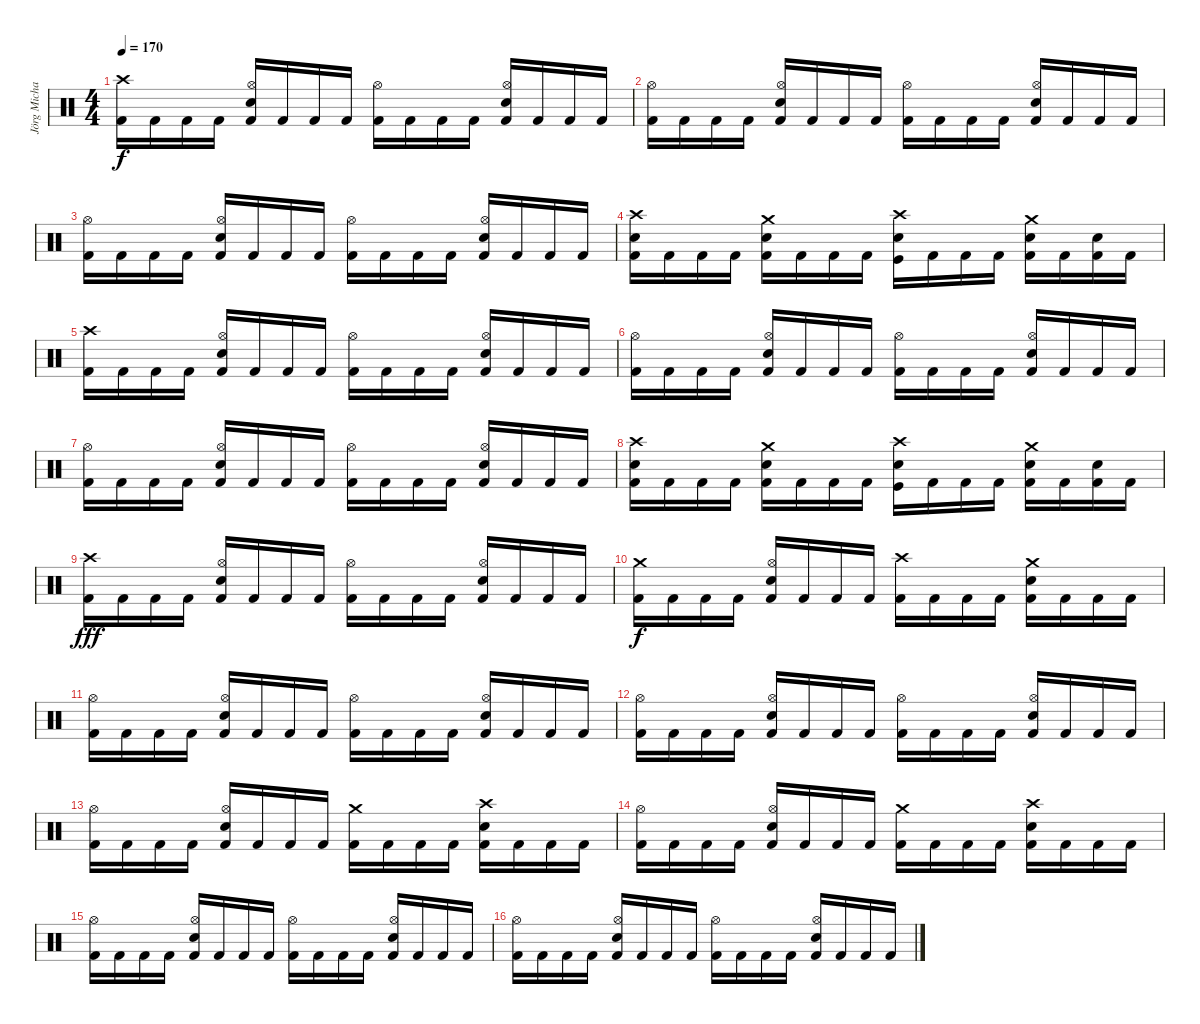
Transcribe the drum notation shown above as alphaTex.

\track ("Jörg Michael" "Jörg Micha") {instrument percussion}
\staff {score}
\articulation defaults
\ts (4 4)
\tempo 170
\clef neutral
\ks c
("Crash high (hit)" "Kick (hit) 2").16{dy f} "Kick (hit) 2".16 "Kick (hit) 2".16 "Kick (hit) 2".16 ("Hi-Hat (open)" "Snare (hit) 2" "Kick (hit) 2").16 "Kick (hit) 2".16 "Kick (hit) 2".16 "Kick (hit) 2".16 ("Hi-Hat (open)" "Kick (hit) 2").16 "Kick (hit) 2".16 "Kick (hit) 2".16 "Kick (hit) 2".16 ("Hi-Hat (open)" "Snare (hit) 2" "Kick (hit) 2").16 "Kick (hit) 2".16 "Kick (hit) 2".16 "Kick (hit) 2".16 |
("Hi-Hat (open)" "Kick (hit) 2").16 "Kick (hit) 2".16 "Kick (hit) 2".16 "Kick (hit) 2".16 ("Hi-Hat (open)" "Snare (hit) 2" "Kick (hit) 2").16 "Kick (hit) 2".16 "Kick (hit) 2".16 "Kick (hit) 2".16 ("Hi-Hat (open)" "Kick (hit) 2").16 "Kick (hit) 2".16 "Kick (hit) 2".16 "Kick (hit) 2".16 ("Hi-Hat (open)" "Snare (hit) 2" "Kick (hit) 2").16 "Kick (hit) 2".16 "Kick (hit) 2".16 "Kick (hit) 2".16 |
("Hi-Hat (open)" "Kick (hit) 2").16 "Kick (hit) 2".16 "Kick (hit) 2".16 "Kick (hit) 2".16 ("Hi-Hat (open)" "Snare (hit) 2" "Kick (hit) 2").16 "Kick (hit) 2".16 "Kick (hit) 2".16 "Kick (hit) 2".16 ("Hi-Hat (open)" "Kick (hit) 2").16 "Kick (hit) 2".16 "Kick (hit) 2".16 "Kick (hit) 2".16 ("Hi-Hat (open)" "Snare (hit) 2" "Kick (hit) 2").16 "Kick (hit) 2".16 "Kick (hit) 2".16 "Kick (hit) 2".16 |
("Crash high (hit)" "Snare (hit) 2" "Kick (hit) 2").16 "Kick (hit) 2".16 "Kick (hit) 2".16 "Kick (hit) 2".16 ("Crash medium (hit)" "Snare (hit) 2" "Kick (hit) 2").16 "Kick (hit) 2".16 "Kick (hit) 2".16 "Kick (hit) 2".16 ("Crash high (hit)" "Snare (hit) 2" "Kick (hit)").16 "Kick (hit) 2".16 "Kick (hit) 2".16 "Kick (hit) 2".16 ("Crash medium (hit)" "Snare (hit) 2" "Kick (hit) 2").16 "Kick (hit) 2".16 ("Snare (hit) 2" "Kick (hit) 2").16 "Kick (hit) 2".16 |
("Crash high (hit)" "Kick (hit) 2").16 "Kick (hit) 2".16 "Kick (hit) 2".16 "Kick (hit) 2".16 ("Hi-Hat (open)" "Snare (hit) 2" "Kick (hit) 2").16 "Kick (hit) 2".16 "Kick (hit) 2".16 "Kick (hit) 2".16 ("Hi-Hat (open)" "Kick (hit) 2").16 "Kick (hit) 2".16 "Kick (hit) 2".16 "Kick (hit) 2".16 ("Hi-Hat (open)" "Snare (hit) 2" "Kick (hit) 2").16 "Kick (hit) 2".16 "Kick (hit) 2".16 "Kick (hit) 2".16 |
("Hi-Hat (open)" "Kick (hit) 2").16 "Kick (hit) 2".16 "Kick (hit) 2".16 "Kick (hit) 2".16 ("Hi-Hat (open)" "Snare (hit) 2" "Kick (hit) 2").16 "Kick (hit) 2".16 "Kick (hit) 2".16 "Kick (hit) 2".16 ("Hi-Hat (open)" "Kick (hit) 2").16 "Kick (hit) 2".16 "Kick (hit) 2".16 "Kick (hit) 2".16 ("Hi-Hat (open)" "Snare (hit) 2" "Kick (hit) 2").16 "Kick (hit) 2".16 "Kick (hit) 2".16 "Kick (hit) 2".16 |
("Hi-Hat (open)" "Kick (hit) 2").16 "Kick (hit) 2".16 "Kick (hit) 2".16 "Kick (hit) 2".16 ("Hi-Hat (open)" "Snare (hit) 2" "Kick (hit) 2").16 "Kick (hit) 2".16 "Kick (hit) 2".16 "Kick (hit) 2".16 ("Hi-Hat (open)" "Kick (hit) 2").16 "Kick (hit) 2".16 "Kick (hit) 2".16 "Kick (hit) 2".16 ("Hi-Hat (open)" "Snare (hit) 2" "Kick (hit) 2").16 "Kick (hit) 2".16 "Kick (hit) 2".16 "Kick (hit) 2".16 |
("Crash high (hit)" "Snare (hit) 2" "Kick (hit) 2").16 "Kick (hit) 2".16 "Kick (hit) 2".16 "Kick (hit) 2".16 ("Crash medium (hit)" "Snare (hit) 2" "Kick (hit) 2").16 "Kick (hit) 2".16 "Kick (hit) 2".16 "Kick (hit) 2".16 ("Crash high (hit)" "Snare (hit) 2" "Kick (hit)").16 "Kick (hit) 2".16 "Kick (hit) 2".16 "Kick (hit) 2".16 ("Crash medium (hit)" "Snare (hit) 2" "Kick (hit) 2").16 "Kick (hit) 2".16 ("Snare (hit) 2" "Kick (hit) 2").16 "Kick (hit) 2".16 |
("Crash high (hit)" "Kick (hit) 2").16{dy fff} "Kick (hit) 2".16 "Kick (hit) 2".16 "Kick (hit) 2".16 ("Hi-Hat (open)" "Snare (hit) 2" "Kick (hit) 2").16 "Kick (hit) 2".16 "Kick (hit) 2".16 "Kick (hit) 2".16 ("Hi-Hat (open)" "Kick (hit) 2").16 "Kick (hit) 2".16 "Kick (hit) 2".16 "Kick (hit) 2".16 ("Hi-Hat (open)" "Snare (hit) 2" "Kick (hit) 2").16 "Kick (hit) 2".16 "Kick (hit) 2".16 "Kick (hit) 2".16 |
("Crash medium (hit)" "Kick (hit) 2").16{dy f} "Kick (hit) 2".16 "Kick (hit) 2".16 "Kick (hit) 2".16 ("Hi-Hat (open)" "Snare (hit) 2" "Kick (hit) 2").16 "Kick (hit) 2".16 "Kick (hit) 2".16 "Kick (hit) 2".16 ("Crash high (hit)" "Kick (hit) 2").16 "Kick (hit) 2".16 "Kick (hit) 2".16 "Kick (hit) 2".16 ("Crash medium (hit)" "Snare (hit) 2" "Kick (hit) 2").16 "Kick (hit) 2".16 "Kick (hit) 2".16 "Kick (hit) 2".16 |
("Hi-Hat (open)" "Kick (hit) 2").16 "Kick (hit) 2".16 "Kick (hit) 2".16 "Kick (hit) 2".16 ("Hi-Hat (open)" "Snare (hit) 2" "Kick (hit) 2").16 "Kick (hit) 2".16 "Kick (hit) 2".16 "Kick (hit) 2".16 ("Hi-Hat (open)" "Kick (hit) 2").16 "Kick (hit) 2".16 "Kick (hit) 2".16 "Kick (hit) 2".16 ("Hi-Hat (open)" "Snare (hit) 2" "Kick (hit) 2").16 "Kick (hit) 2".16 "Kick (hit) 2".16 "Kick (hit) 2".16 |
("Hi-Hat (open)" "Kick (hit) 2").16 "Kick (hit) 2".16 "Kick (hit) 2".16 "Kick (hit) 2".16 ("Hi-Hat (open)" "Snare (hit) 2" "Kick (hit) 2").16 "Kick (hit) 2".16 "Kick (hit) 2".16 "Kick (hit) 2".16 ("Hi-Hat (open)" "Kick (hit) 2").16 "Kick (hit) 2".16 "Kick (hit) 2".16 "Kick (hit) 2".16 ("Hi-Hat (open)" "Snare (hit) 2" "Kick (hit) 2").16 "Kick (hit) 2".16 "Kick (hit) 2".16 "Kick (hit) 2".16 |
("Hi-Hat (open)" "Kick (hit) 2").16 "Kick (hit) 2".16 "Kick (hit) 2".16 "Kick (hit) 2".16 ("Hi-Hat (open)" "Snare (hit) 2" "Kick (hit) 2").16 "Kick (hit) 2".16 "Kick (hit) 2".16 "Kick (hit) 2".16 ("Crash medium (hit)" "Kick (hit) 2").16 "Kick (hit) 2".16 "Kick (hit) 2".16 "Kick (hit) 2".16 ("Crash high (hit)" "Snare (hit) 2" "Kick (hit) 2").16 "Kick (hit) 2".16 "Kick (hit) 2".16 "Kick (hit) 2".16 |
("Hi-Hat (open)" "Kick (hit) 2").16 "Kick (hit) 2".16 "Kick (hit) 2".16 "Kick (hit) 2".16 ("Hi-Hat (open)" "Snare (hit) 2" "Kick (hit) 2").16 "Kick (hit) 2".16 "Kick (hit) 2".16 "Kick (hit) 2".16 ("Crash medium (hit)" "Kick (hit) 2").16 "Kick (hit) 2".16 "Kick (hit) 2".16 "Kick (hit) 2".16 ("Crash high (hit)" "Snare (hit) 2" "Kick (hit) 2").16 "Kick (hit) 2".16 "Kick (hit) 2".16 "Kick (hit) 2".16 |
("Hi-Hat (open)" "Kick (hit) 2").16 "Kick (hit) 2".16 "Kick (hit) 2".16 "Kick (hit) 2".16 ("Hi-Hat (open)" "Snare (hit) 2" "Kick (hit) 2").16 "Kick (hit) 2".16 "Kick (hit) 2".16 "Kick (hit) 2".16 ("Hi-Hat (open)" "Kick (hit) 2").16 "Kick (hit) 2".16 "Kick (hit) 2".16 "Kick (hit) 2".16 ("Hi-Hat (open)" "Snare (hit) 2" "Kick (hit) 2").16 "Kick (hit) 2".16 "Kick (hit) 2".16 "Kick (hit) 2".16 |
("Hi-Hat (open)" "Kick (hit) 2").16 "Kick (hit) 2".16 "Kick (hit) 2".16 "Kick (hit) 2".16 ("Hi-Hat (open)" "Snare (hit) 2" "Kick (hit) 2").16 "Kick (hit) 2".16 "Kick (hit) 2".16 "Kick (hit) 2".16 ("Hi-Hat (open)" "Kick (hit) 2").16 "Kick (hit) 2".16 "Kick (hit) 2".16 "Kick (hit) 2".16 ("Hi-Hat (open)" "Snare (hit) 2" "Kick (hit) 2").16 "Kick (hit) 2".16 "Kick (hit) 2".16 "Kick (hit) 2".16
